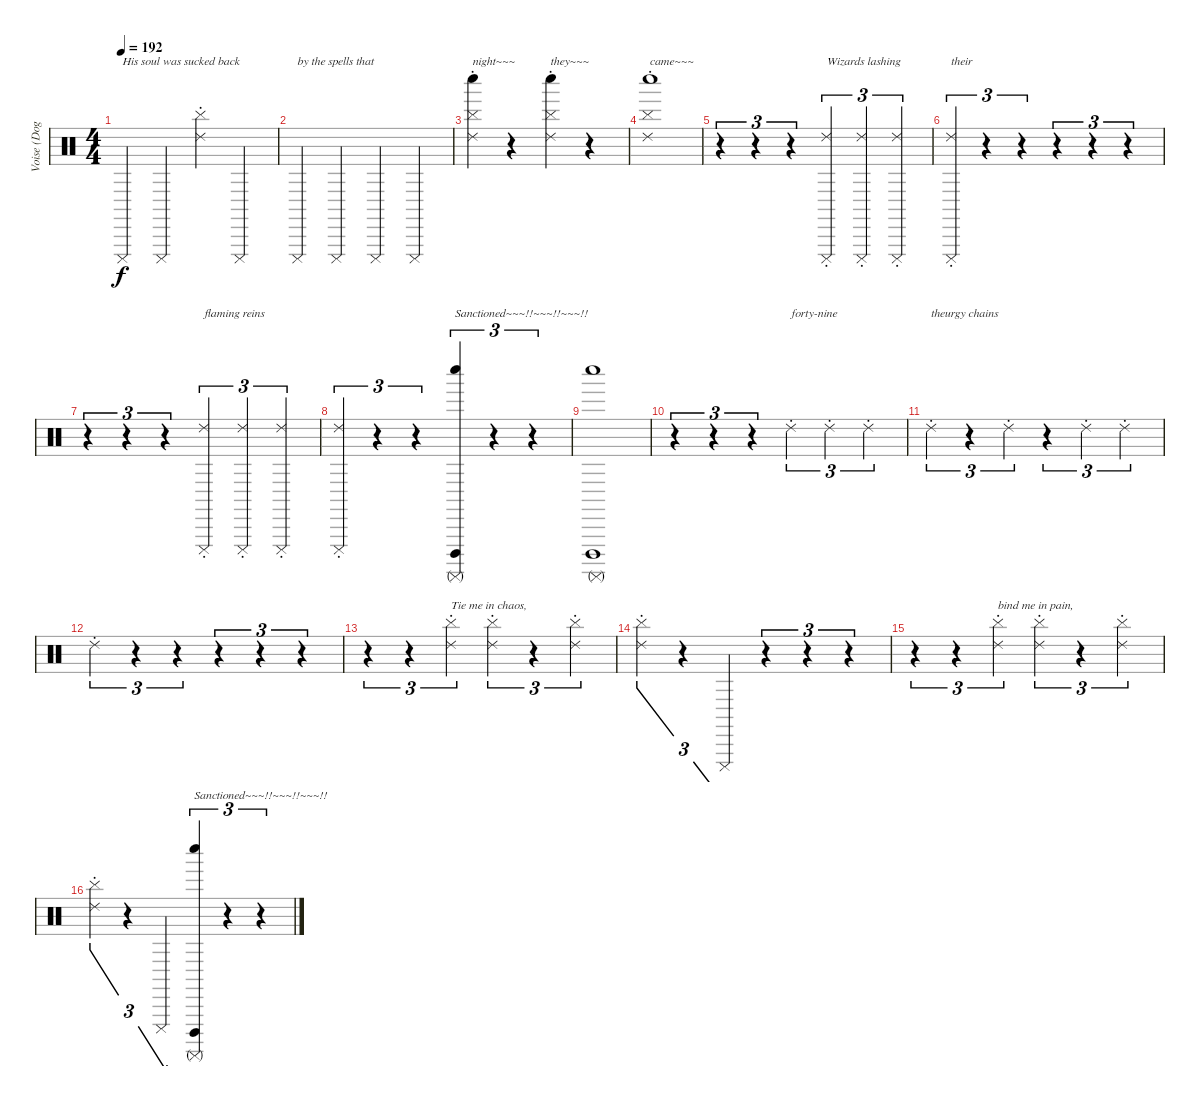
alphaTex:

\track ("Voise (Dog)" "Voise (Dog") {instrument percussion}
\staff {score}
\articulation defaults
\ts (4 4)
\tempo 192
\clef neutral
\ks c "Cuica (mute)".4{txt "His soul was sucked back" dy f} "Cuica (mute)".4
("Ride (choke) 2" "Cymbal (hit)").4 "Cuica (mute)".4 |
"Cuica (mute)".4{txt "by the spells that"} "Cuica (mute)".4 "Cuica (mute)".4 "Cuica (mute)".4 |
("Cymbal (hit)" "Ride (choke) 2" "Whistle low (hit)").4{txt "night~~~"} r.4 ("Cymbal (hit)" "Ride (choke) 2" "Whistle low (hit)").4{txt "they~~~"} r.4 |
("Cymbal (hit)" "Ride (choke) 2" "Whistle low (hit)").1{txt "came~~~"} |
r.4{tu (3 2)} r.4{tu (3 2)} r.4{tu (3 2)} ("Ride (choke) 2" "Cuica (mute)").4{tu (3 2) txt "Wizards lashing"} ("Ride (choke) 2" "Cuica (mute)").4{tu (3 2)} ("Ride (choke) 2" "Cuica (mute)").4{tu (3 2)} |
("Ride (choke) 2" "Cuica (mute)").4{tu (3 2) txt "their"} r.4{tu (3 2)} r.4{tu (3 2)} r.4{tu (3 2)} r.4{tu (3 2)} r.4{tu (3 2)} |
r.4{tu (3 2)} r.4{tu (3 2)} r.4{tu (3 2)} ("Ride (choke) 2" "Cuica (mute)").4{tu (3 2) txt "flaming reins"} ("Ride (choke) 2" "Cuica (mute)").4{tu (3 2)} ("Ride (choke) 2" "Cuica (mute)").4{tu (3 2)} |
("Ride (choke) 2" "Cuica (mute)").4{tu (3 2)} r.4{tu (3 2)} r.4{tu (3 2)} ("Surdo (mute)" "Whistle low (hit)" "Cuica (open)").4{tu (3 2) txt "Sanctioned~~~!!~~~!!~~~!!"} r.4{tu (3 2)} r.4{tu (3 2)} |
("Surdo (mute)" "Whistle low (hit)" "Cuica (open)").1 |
r.4{tu (3 2)} r.4{tu (3 2)} r.4{tu (3 2)} "Ride (choke) 2".4{tu (3 2) txt "forty-nine"} "Ride (choke) 2".4{tu (3 2)} "Ride (choke) 2".4{tu (3 2)} |
"Ride (choke) 2".4{tu (3 2) txt "theurgy chains"} r.4{tu (3 2)} "Ride (choke) 2".4{tu (3 2)} r.4{tu (3 2)} "Ride (choke) 2".4{tu (3 2)} "Ride (choke) 2".4{tu (3 2)} |
"Ride (choke) 2".4{tu (3 2)} r.4{tu (3 2)} r.4{tu (3 2)} r.4{tu (3 2)} r.4{tu (3 2)} r.4{tu (3 2)} |
r.4{tu (3 2)} r.4{tu (3 2)} ("Ride (choke) 2" "Cymbal (hit)").4{tu (3 2) txt "Tie me in chaos,"} ("Ride (choke) 2" "Cymbal (hit)").4{tu (3 2)} r.4{tu (3 2)} ("Ride (choke) 2" "Cymbal (hit)").4{tu (3 2)} |
("Ride (choke) 2" "Cymbal (hit)").4{tu (3 2)} r.4{tu (3 2)} "Cuica (mute)".4{tu (3 2)} r.4{tu (3 2)} r.4{tu (3 2)} r.4{tu (3 2)} |
r.4{tu (3 2)} r.4{tu (3 2)} ("Ride (choke) 2" "Cymbal (hit)").4{tu (3 2) txt "bind me in pain, "} ("Ride (choke) 2" "Cymbal (hit)").4{tu (3 2)} r.4{tu (3 2)} ("Ride (choke) 2" "Cymbal (hit)").4{tu (3 2)} |
("Ride (choke) 2" "Cymbal (hit)").4{tu (3 2)} r.4{tu (3 2)} "Cuica (mute)".4{tu (3 2)} ("Surdo (mute)" "Whistle low (hit)" "Cuica (open)").4{tu (3 2) txt "Sanctioned~~~!!~~~!!~~~!!"} r.4{tu (3 2)} r.4{tu (3 2)}
